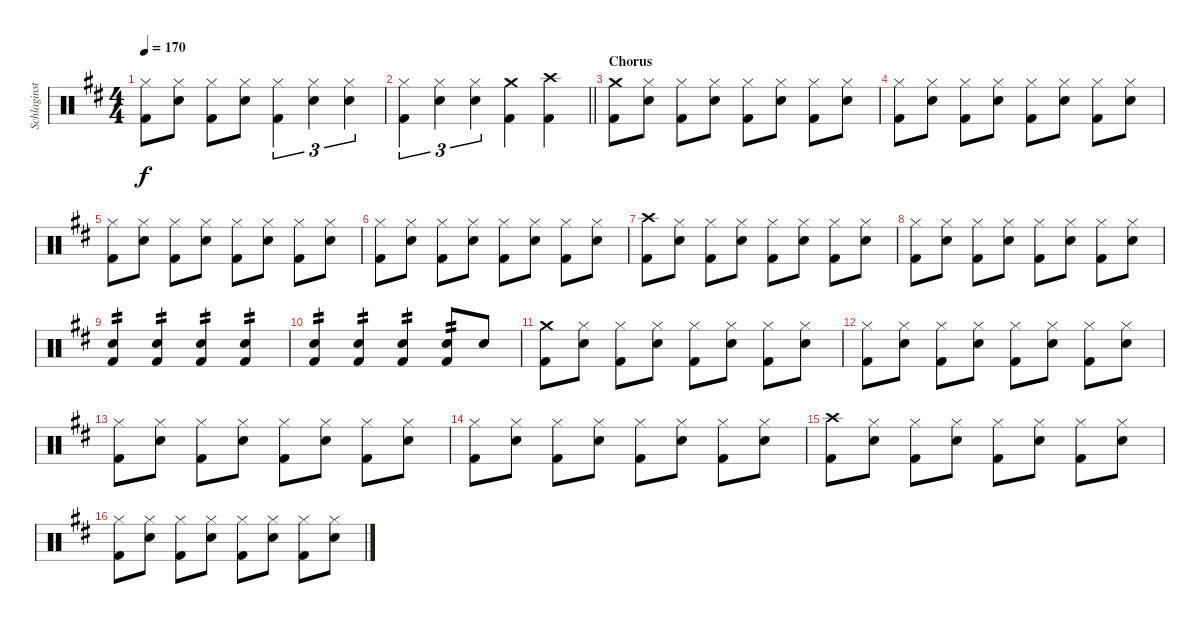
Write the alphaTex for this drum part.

\track ("Schlaginstrumente - Auswahl" "Schlaginst") {instrument percussion}
\staff {score}
\articulation defaults
\ts (4 4)
\tempo 170
\clef neutral
\ks d
("Hi-Hat (closed)" "Kick (hit) 2").8{dy f} ("Hi-Hat (closed)" "Snare (hit) 2").8 ("Hi-Hat (closed)" "Kick (hit) 2").8 ("Hi-Hat (closed)" "Snare (hit) 2").8 ("Hi-Hat (closed)" "Kick (hit) 2").4{tu (3 2)} ("Hi-Hat (closed)" "Snare (hit) 2").4{tu (3 2)} ("Hi-Hat (closed)" "Snare (hit) 2").4{tu (3 2)} |
\barLineRight lightlight
("Hi-Hat (closed)" "Kick (hit) 2").4{tu (3 2)} ("Hi-Hat (closed)" "Snare (hit) 2").4{tu (3 2)} ("Hi-Hat (closed)" "Snare (hit) 2").4{tu (3 2)} ("Crash medium (hit)" "Kick (hit) 2").4 ("Crash high (hit)" "Kick (hit) 2").4 |
\section ("" "Chorus")
("Crash medium (hit)" "Kick (hit) 2").8 ("Hi-Hat (closed)" "Snare (hit) 2").8 ("Hi-Hat (closed)" "Kick (hit) 2").8 ("Hi-Hat (closed)" "Snare (hit) 2").8 ("Hi-Hat (closed)" "Kick (hit) 2").8 ("Hi-Hat (closed)" "Snare (hit) 2").8 ("Hi-Hat (closed)" "Kick (hit) 2").8 ("Hi-Hat (closed)" "Snare (hit) 2").8 |
("Hi-Hat (closed)" "Kick (hit) 2").8 ("Hi-Hat (closed)" "Snare (hit) 2").8 ("Hi-Hat (closed)" "Kick (hit) 2").8 ("Hi-Hat (closed)" "Snare (hit) 2").8 ("Hi-Hat (closed)" "Kick (hit) 2").8 ("Hi-Hat (closed)" "Snare (hit) 2").8 ("Hi-Hat (closed)" "Kick (hit) 2").8 ("Hi-Hat (closed)" "Snare (hit) 2").8 |
("Hi-Hat (closed)" "Kick (hit) 2").8 ("Hi-Hat (closed)" "Snare (hit) 2").8 ("Hi-Hat (closed)" "Kick (hit) 2").8 ("Hi-Hat (closed)" "Snare (hit) 2").8 ("Hi-Hat (closed)" "Kick (hit) 2").8 ("Hi-Hat (closed)" "Snare (hit) 2").8 ("Hi-Hat (closed)" "Kick (hit) 2").8 ("Hi-Hat (closed)" "Snare (hit) 2").8 |
("Hi-Hat (closed)" "Kick (hit) 2").8 ("Hi-Hat (closed)" "Snare (hit) 2").8 ("Hi-Hat (closed)" "Kick (hit) 2").8 ("Hi-Hat (closed)" "Snare (hit) 2").8 ("Hi-Hat (closed)" "Kick (hit) 2").8 ("Hi-Hat (closed)" "Snare (hit) 2").8 ("Hi-Hat (closed)" "Kick (hit) 2").8 ("Hi-Hat (closed)" "Snare (hit) 2").8 |
("Crash high (hit)" "Kick (hit) 2").8 ("Hi-Hat (closed)" "Snare (hit) 2").8 ("Hi-Hat (closed)" "Kick (hit) 2").8 ("Hi-Hat (closed)" "Snare (hit) 2").8 ("Hi-Hat (closed)" "Kick (hit) 2").8 ("Hi-Hat (closed)" "Snare (hit) 2").8 ("Hi-Hat (closed)" "Kick (hit) 2").8 ("Hi-Hat (closed)" "Snare (hit) 2").8 |
("Hi-Hat (closed)" "Kick (hit) 2").8 ("Hi-Hat (closed)" "Snare (hit) 2").8 ("Hi-Hat (closed)" "Kick (hit) 2").8 ("Hi-Hat (closed)" "Snare (hit) 2").8 ("Hi-Hat (closed)" "Kick (hit) 2").8 ("Hi-Hat (closed)" "Snare (hit) 2").8 ("Hi-Hat (closed)" "Kick (hit) 2").8 ("Hi-Hat (closed)" "Snare (hit) 2").8 |
("Snare (hit) 2" "Kick (hit) 2").4{tp 2} ("Snare (hit) 2" "Kick (hit) 2").4{tp 2} ("Snare (hit) 2" "Kick (hit) 2").4{tp 2} ("Snare (hit) 2" "Kick (hit) 2").4{tp 2} |
("Snare (hit) 2" "Kick (hit) 2").4{tp 2} ("Snare (hit) 2" "Kick (hit) 2").4{tp 2} ("Snare (hit) 2" "Kick (hit) 2").4{tp 2} ("Snare (hit) 2" "Kick (hit) 2").8{tp 2} "Snare (hit) 2".8 |
("Crash medium (hit)" "Kick (hit) 2").8 ("Hi-Hat (closed)" "Snare (hit) 2").8 ("Hi-Hat (closed)" "Kick (hit) 2").8 ("Hi-Hat (closed)" "Snare (hit) 2").8 ("Hi-Hat (closed)" "Kick (hit) 2").8 ("Hi-Hat (closed)" "Snare (hit) 2").8 ("Hi-Hat (closed)" "Kick (hit) 2").8 ("Hi-Hat (closed)" "Snare (hit) 2").8 |
("Hi-Hat (closed)" "Kick (hit) 2").8 ("Hi-Hat (closed)" "Snare (hit) 2").8 ("Hi-Hat (closed)" "Kick (hit) 2").8 ("Hi-Hat (closed)" "Snare (hit) 2").8 ("Hi-Hat (closed)" "Kick (hit) 2").8 ("Hi-Hat (closed)" "Snare (hit) 2").8 ("Hi-Hat (closed)" "Kick (hit) 2").8 ("Hi-Hat (closed)" "Snare (hit) 2").8 |
("Hi-Hat (closed)" "Kick (hit) 2").8 ("Hi-Hat (closed)" "Snare (hit) 2").8 ("Hi-Hat (closed)" "Kick (hit) 2").8 ("Hi-Hat (closed)" "Snare (hit) 2").8 ("Hi-Hat (closed)" "Kick (hit) 2").8 ("Hi-Hat (closed)" "Snare (hit) 2").8 ("Hi-Hat (closed)" "Kick (hit) 2").8 ("Hi-Hat (closed)" "Snare (hit) 2").8 |
("Hi-Hat (closed)" "Kick (hit) 2").8 ("Hi-Hat (closed)" "Snare (hit) 2").8 ("Hi-Hat (closed)" "Kick (hit) 2").8 ("Hi-Hat (closed)" "Snare (hit) 2").8 ("Hi-Hat (closed)" "Kick (hit) 2").8 ("Hi-Hat (closed)" "Snare (hit) 2").8 ("Hi-Hat (closed)" "Kick (hit) 2").8 ("Hi-Hat (closed)" "Snare (hit) 2").8 |
("Crash high (hit)" "Kick (hit) 2").8 ("Hi-Hat (closed)" "Snare (hit) 2").8 ("Hi-Hat (closed)" "Kick (hit) 2").8 ("Hi-Hat (closed)" "Snare (hit) 2").8 ("Hi-Hat (closed)" "Kick (hit) 2").8 ("Hi-Hat (closed)" "Snare (hit) 2").8 ("Hi-Hat (closed)" "Kick (hit) 2").8 ("Hi-Hat (closed)" "Snare (hit) 2").8 |
("Hi-Hat (closed)" "Kick (hit) 2").8 ("Hi-Hat (closed)" "Snare (hit) 2").8 ("Hi-Hat (closed)" "Kick (hit) 2").8 ("Hi-Hat (closed)" "Snare (hit) 2").8 ("Hi-Hat (closed)" "Kick (hit) 2").8 ("Hi-Hat (closed)" "Snare (hit) 2").8 ("Hi-Hat (closed)" "Kick (hit) 2").8 ("Hi-Hat (closed)" "Snare (hit) 2").8
